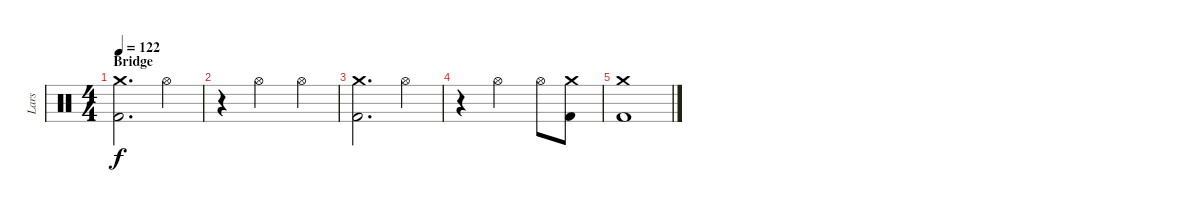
\track ("Lars" "Lars") {instrument percussion}
\staff {score}
\articulation defaults
\ts (4 4)
\section ("" "Bridge")
\tempo 122
\clef neutral
\ks c
("Crash medium (hit)" "Kick (hit) 2").2{d dy f} "Hi-Hat (open)".4 |
r.4 "Hi-Hat (open)".2 "Hi-Hat (open)".4 |
("Crash medium (hit)" "Kick (hit) 2").2{d} "Hi-Hat (open)".4 |
r.4 "Hi-Hat (open)".2 "Hi-Hat (open)".8 ("Crash medium (hit)" "Kick (hit) 2").8 |
("Crash medium (hit)" "Kick (hit) 2").1
